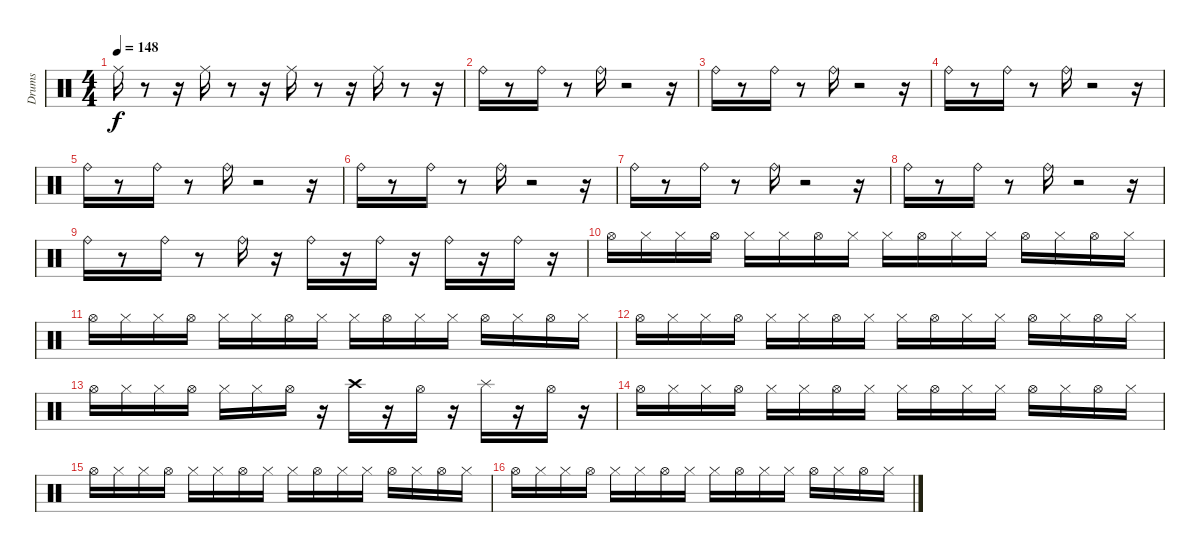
\track ("Drums" "Drums") {instrument percussion}
\staff {score}
\articulation defaults
\ts (4 4)
\tempo 148
\clef neutral
\ks c "Ride (middle)".16{dy f}
r.8 r.16 "Ride (middle)".16 r.8 r.16 "Ride (middle)".16 r.8 r.16 "Ride (middle)".16 r.8 r.16 |
"Ride (bell)".16 r.8 "Ride (bell)".16 r.8 "Ride (bell)".16 r.2 r.16 |
"Ride (bell)".16 r.8 "Ride (bell)".16 r.8 "Ride (bell)".16 r.2 r.16 |
"Ride (bell)".16 r.8 "Ride (bell)".16 r.8 "Ride (bell)".16 r.2 r.16 |
"Ride (bell)".16 r.8 "Ride (bell)".16 r.8 "Ride (bell)".16 r.2 r.16 |
"Ride (bell)".16 r.8 "Ride (bell)".16 r.8 "Ride (bell)".16 r.2 r.16 |
"Ride (bell)".16 r.8 "Ride (bell)".16 r.8 "Ride (bell)".16 r.2 r.16 |
"Ride (bell)".16 r.8 "Ride (bell)".16 r.8 "Ride (bell)".16 r.2 r.16 |
"Ride (bell)".16 r.8 "Ride (bell)".16 r.8 "Ride (bell)".16 r.16 "Ride (bell)".16 r.16 "Ride (bell)".16 r.16 "Ride (bell)".16 r.16 "Ride (bell)".16 r.16 |
"Hi-Hat (open)".16 "Hi-Hat (closed)".16 "Hi-Hat (closed)".16 "Hi-Hat (open)".16 "Hi-Hat (closed)".16 "Hi-Hat (closed)".16 "Hi-Hat (open)".16 "Hi-Hat (closed)".16 "Hi-Hat (closed)".16 "Hi-Hat (open)".16 "Hi-Hat (closed)".16 "Hi-Hat (closed)".16 "Hi-Hat (open)".16 "Hi-Hat (closed)".16 "Hi-Hat (open)".16 "Hi-Hat (closed)".16 |
"Hi-Hat (open)".16 "Hi-Hat (closed)".16 "Hi-Hat (closed)".16 "Hi-Hat (open)".16 "Hi-Hat (closed)".16 "Hi-Hat (closed)".16 "Hi-Hat (open)".16 "Hi-Hat (closed)".16 "Hi-Hat (closed)".16 "Hi-Hat (open)".16 "Hi-Hat (closed)".16 "Hi-Hat (closed)".16 "Hi-Hat (open)".16 "Hi-Hat (closed)".16 "Hi-Hat (open)".16 "Hi-Hat (closed)".16 |
"Hi-Hat (open)".16 "Hi-Hat (closed)".16 "Hi-Hat (closed)".16 "Hi-Hat (open)".16 "Hi-Hat (closed)".16 "Hi-Hat (closed)".16 "Hi-Hat (open)".16 "Hi-Hat (closed)".16 "Hi-Hat (closed)".16 "Hi-Hat (open)".16 "Hi-Hat (closed)".16 "Hi-Hat (closed)".16 "Hi-Hat (open)".16 "Hi-Hat (closed)".16 "Hi-Hat (open)".16 "Hi-Hat (closed)".16 |
"Hi-Hat (open)".16 "Hi-Hat (closed)".16 "Hi-Hat (closed)".16 "Hi-Hat (open)".16 "Hi-Hat (closed)".16 "Hi-Hat (closed)".16 "Hi-Hat (open)".16 r.16 "Crash high (hit)".16 r.16 "Hi-Hat (open)".16 r.16 "Splash (hit)".16 r.16 "Hi-Hat (open)".16 r.16 |
"Hi-Hat (open)".16 "Hi-Hat (closed)".16 "Hi-Hat (closed)".16 "Hi-Hat (open)".16 "Hi-Hat (closed)".16 "Hi-Hat (closed)".16 "Hi-Hat (open)".16 "Hi-Hat (closed)".16 "Hi-Hat (closed)".16 "Hi-Hat (open)".16 "Hi-Hat (closed)".16 "Hi-Hat (closed)".16 "Hi-Hat (open)".16 "Hi-Hat (closed)".16 "Hi-Hat (open)".16 "Hi-Hat (closed)".16 |
"Hi-Hat (open)".16 "Hi-Hat (closed)".16 "Hi-Hat (closed)".16 "Hi-Hat (open)".16 "Hi-Hat (closed)".16 "Hi-Hat (closed)".16 "Hi-Hat (open)".16 "Hi-Hat (closed)".16 "Hi-Hat (closed)".16 "Hi-Hat (open)".16 "Hi-Hat (closed)".16 "Hi-Hat (closed)".16 "Hi-Hat (open)".16 "Hi-Hat (closed)".16 "Hi-Hat (open)".16 "Hi-Hat (closed)".16 |
"Hi-Hat (open)".16 "Hi-Hat (closed)".16 "Hi-Hat (closed)".16 "Hi-Hat (open)".16 "Hi-Hat (closed)".16 "Hi-Hat (closed)".16 "Hi-Hat (open)".16 "Hi-Hat (closed)".16 "Hi-Hat (closed)".16 "Hi-Hat (open)".16 "Hi-Hat (closed)".16 "Hi-Hat (closed)".16 "Hi-Hat (open)".16 "Hi-Hat (closed)".16 "Hi-Hat (open)".16 "Hi-Hat (closed)".16
